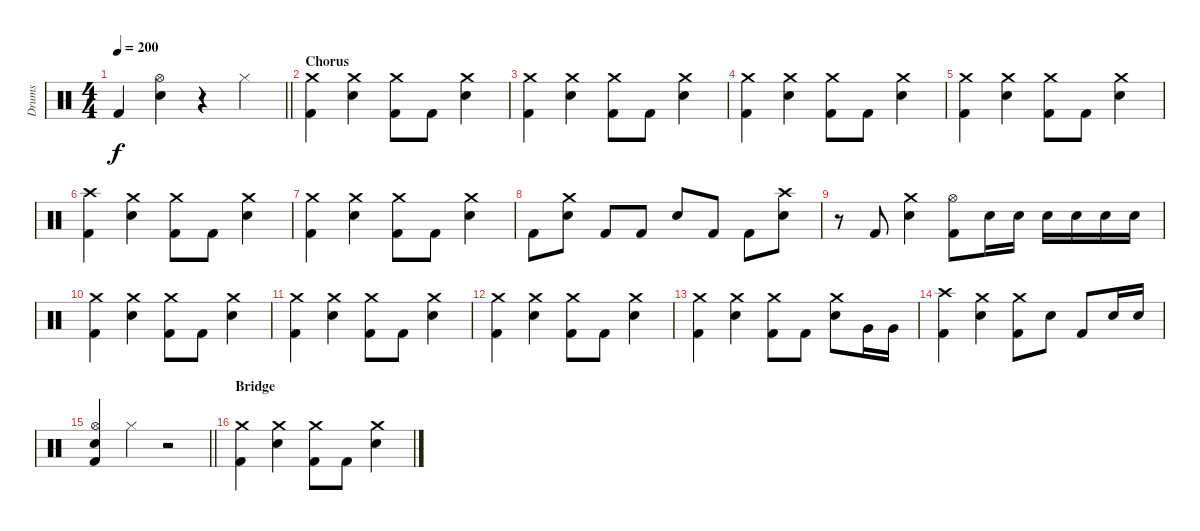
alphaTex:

\track ("Drums" "Drums") {instrument percussion}
\staff {score}
\articulation defaults
\ts (4 4)
\tempo 200
\clef neutral
\barLineRight lightlight
\ks c "Kick (hit) 2".4{dy f}
("Hi-Hat (open)" "Snare (hit) 2").4 r.4 "Hi-Hat (closed)".4 |
\section ("" "Chorus")
("Crash medium (hit)" "Kick (hit) 2").4 ("Crash medium (hit)" "Snare (hit) 2").4 ("Crash medium (hit)" "Kick (hit) 2").8 "Kick (hit) 2".8 ("Crash medium (hit)" "Snare (hit) 2").4 |
("Crash medium (hit)" "Kick (hit) 2").4 ("Crash medium (hit)" "Snare (hit) 2").4 ("Crash medium (hit)" "Kick (hit) 2").8 "Kick (hit) 2".8 ("Crash medium (hit)" "Snare (hit) 2").4 |
("Crash medium (hit)" "Kick (hit) 2").4 ("Crash medium (hit)" "Snare (hit) 2").4 ("Crash medium (hit)" "Kick (hit) 2").8 "Kick (hit) 2".8 ("Crash medium (hit)" "Snare (hit) 2").4 |
("Crash medium (hit)" "Kick (hit) 2").4 ("Crash medium (hit)" "Snare (hit) 2").4 ("Crash medium (hit)" "Kick (hit) 2").8 "Kick (hit) 2".8 ("Crash medium (hit)" "Snare (hit) 2").4 |
("Crash high (hit)" "Kick (hit) 2").4 ("Crash medium (hit)" "Snare (hit) 2").4 ("Crash medium (hit)" "Kick (hit) 2").8 "Kick (hit) 2".8 ("Crash medium (hit)" "Snare (hit) 2").4 |
("Crash medium (hit)" "Kick (hit) 2").4 ("Crash medium (hit)" "Snare (hit) 2").4 ("Crash medium (hit)" "Kick (hit) 2").8 "Kick (hit) 2".8 ("Crash medium (hit)" "Snare (hit) 2").4 |
"Kick (hit) 2".8 ("Crash medium (hit)" "Snare (hit) 2").8 "Kick (hit) 2".8 "Kick (hit) 2".8 "Snare (hit) 2".8 "Kick (hit) 2".8 "Kick (hit) 2".8 ("Crash high (hit)" "Snare (hit) 2").8 |
r.8 "Kick (hit) 2".8 ("Crash medium (hit)" "Snare (hit) 2").4 ("Hi-Hat (open)" "Kick (hit) 2").8 "Snare (hit) 2".16 "Snare (hit) 2".16 "Snare (hit) 2".16 "Snare (hit) 2".16 "Snare (hit) 2".16 "Snare (hit) 2".16 |
("Crash medium (hit)" "Kick (hit) 2").4 ("Crash medium (hit)" "Snare (hit) 2").4 ("Crash medium (hit)" "Kick (hit) 2").8 "Kick (hit) 2".8 ("Crash medium (hit)" "Snare (hit) 2").4 |
("Crash medium (hit)" "Kick (hit) 2").4 ("Crash medium (hit)" "Snare (hit) 2").4 ("Crash medium (hit)" "Kick (hit) 2").8 "Kick (hit) 2".8 ("Crash medium (hit)" "Snare (hit) 2").4 |
("Crash medium (hit)" "Kick (hit) 2").4 ("Crash medium (hit)" "Snare (hit) 2").4 ("Crash medium (hit)" "Kick (hit) 2").8 "Kick (hit) 2".8 ("Crash medium (hit)" "Snare (hit) 2").4 |
("Crash medium (hit)" "Kick (hit) 2").4 ("Crash medium (hit)" "Snare (hit) 2").4 ("Crash medium (hit)" "Kick (hit) 2").8 "Kick (hit) 2".8 ("Crash medium (hit)" "Snare (hit) 2").8 "Very Low Tom (hit)".16 "Very Low Tom (hit)".16 |
("Crash high (hit)" "Kick (hit) 2").4 ("Crash medium (hit)" "Snare (hit) 2").4 ("Crash medium (hit)" "Kick (hit) 2").8 "Snare (hit) 2".8 "Kick (hit) 2".8 "Snare (hit) 2".16 "Snare (hit) 2".16 |
\barLineRight lightlight
("Hi-Hat (open)" "Snare (hit) 2" "Kick (hit) 2").4 "Hi-Hat (closed)".4 r.2 |
\section ("" "Bridge")
("Crash medium (hit)" "Kick (hit) 2").4 ("Crash medium (hit)" "Snare (hit) 2").4 ("Crash medium (hit)" "Kick (hit) 2").8 "Kick (hit) 2".8 ("Crash medium (hit)" "Snare (hit) 2").4
